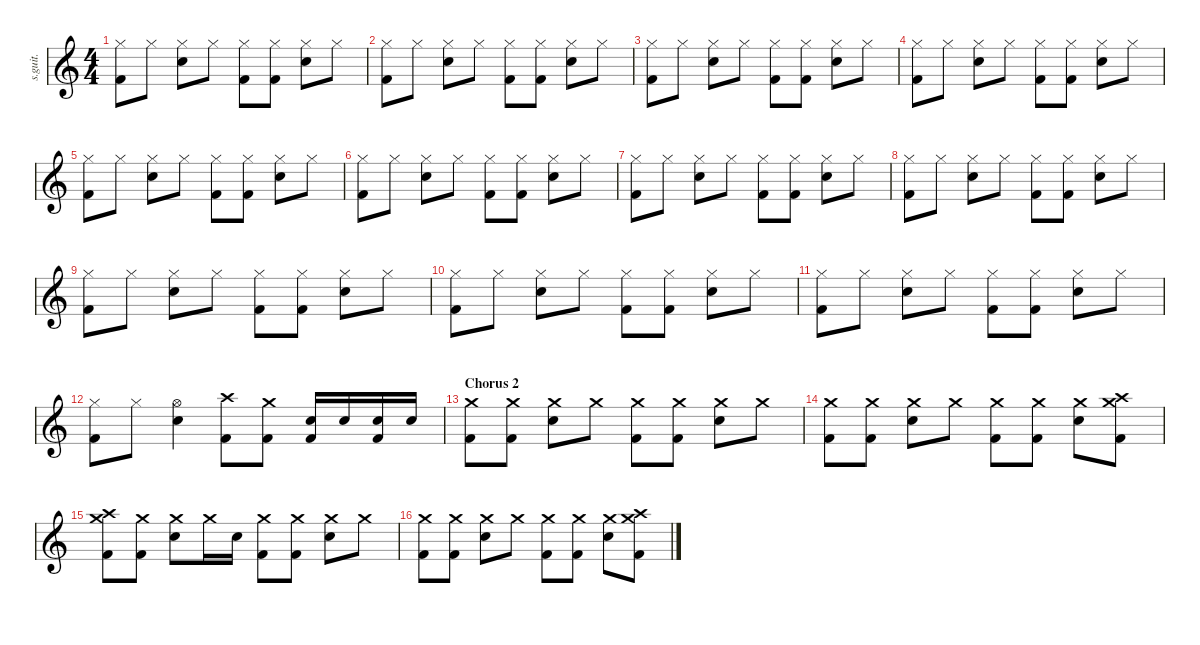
\defaultSystemsLayout 4
\hideDynamics
\bracketExtendMode nobrackets
\track ("Tre Cool" "s.guit.") {instrument percussion}
\staff {score}
\articulation defaults
\ts (4 4)
\tempo (84 hide)
\clef g2
\ks c
("Hi-Hat (closed)" "Kick (hit) 2").8{lyrics (0 "") lyrics (1 "") lyrics (2 "") lyrics (3 "") lyrics (4 "") dy f} "Hi-Hat (closed)".8{lyrics (0 "") lyrics (1 "") lyrics (2 "") lyrics (3 "") lyrics (4 "")} ("Hi-Hat (closed)" "Snare (hit) 2").8{lyrics (0 "") lyrics (1 "") lyrics (2 "") lyrics (3 "") lyrics (4 "")} "Hi-Hat (closed)".8{lyrics (0 "") lyrics (1 "") lyrics (2 "") lyrics (3 "") lyrics (4 "")} ("Hi-Hat (closed)" "Kick (hit) 2").8{lyrics (0 "") lyrics (1 "") lyrics (2 "") lyrics (3 "") lyrics (4 "")} ("Hi-Hat (closed)" "Kick (hit) 2").8{lyrics (0 "") lyrics (1 "") lyrics (2 "") lyrics (3 "") lyrics (4 "")} ("Hi-Hat (closed)" "Snare (hit) 2").8{lyrics (0 "") lyrics (1 "") lyrics (2 "") lyrics (3 "") lyrics (4 "")} "Hi-Hat (closed)".8{lyrics (0 "") lyrics (1 "") lyrics (2 "") lyrics (3 "") lyrics (4 "")} |
("Hi-Hat (closed)" "Kick (hit) 2").8{lyrics (0 "") lyrics (1 "") lyrics (2 "") lyrics (3 "") lyrics (4 "")} "Hi-Hat (closed)".8{lyrics (0 "") lyrics (1 "") lyrics (2 "") lyrics (3 "") lyrics (4 "")} ("Hi-Hat (closed)" "Snare (hit) 2").8{lyrics (0 "") lyrics (1 "") lyrics (2 "") lyrics (3 "") lyrics (4 "")} "Hi-Hat (closed)".8{lyrics (0 "") lyrics (1 "") lyrics (2 "") lyrics (3 "") lyrics (4 "")} ("Hi-Hat (closed)" "Kick (hit) 2").8{lyrics (0 "") lyrics (1 "") lyrics (2 "") lyrics (3 "") lyrics (4 "")} ("Hi-Hat (closed)" "Kick (hit) 2").8{lyrics (0 "") lyrics (1 "") lyrics (2 "") lyrics (3 "") lyrics (4 "")} ("Hi-Hat (closed)" "Snare (hit) 2").8{lyrics (0 "") lyrics (1 "") lyrics (2 "") lyrics (3 "") lyrics (4 "")} "Hi-Hat (closed)".8{lyrics (0 "") lyrics (1 "") lyrics (2 "") lyrics (3 "") lyrics (4 "")} |
("Hi-Hat (closed)" "Kick (hit) 2").8{lyrics (0 "") lyrics (1 "") lyrics (2 "") lyrics (3 "") lyrics (4 "")} "Hi-Hat (closed)".8{lyrics (0 "") lyrics (1 "") lyrics (2 "") lyrics (3 "") lyrics (4 "")} ("Hi-Hat (closed)" "Snare (hit) 2").8{lyrics (0 "") lyrics (1 "") lyrics (2 "") lyrics (3 "") lyrics (4 "")} "Hi-Hat (closed)".8{lyrics (0 "") lyrics (1 "") lyrics (2 "") lyrics (3 "") lyrics (4 "")} ("Hi-Hat (closed)" "Kick (hit) 2").8{lyrics (0 "") lyrics (1 "") lyrics (2 "") lyrics (3 "") lyrics (4 "")} ("Hi-Hat (closed)" "Kick (hit) 2").8{lyrics (0 "") lyrics (1 "") lyrics (2 "") lyrics (3 "") lyrics (4 "")} ("Hi-Hat (closed)" "Snare (hit) 2").8{lyrics (0 "") lyrics (1 "") lyrics (2 "") lyrics (3 "") lyrics (4 "")} "Hi-Hat (closed)".8{lyrics (0 "") lyrics (1 "") lyrics (2 "") lyrics (3 "") lyrics (4 "")} |
("Hi-Hat (closed)" "Kick (hit) 2").8{lyrics (0 "") lyrics (1 "") lyrics (2 "") lyrics (3 "") lyrics (4 "")} "Hi-Hat (closed)".8{lyrics (0 "") lyrics (1 "") lyrics (2 "") lyrics (3 "") lyrics (4 "")} ("Hi-Hat (closed)" "Snare (hit) 2").8{lyrics (0 "") lyrics (1 "") lyrics (2 "") lyrics (3 "") lyrics (4 "")} "Hi-Hat (closed)".8{lyrics (0 "") lyrics (1 "") lyrics (2 "") lyrics (3 "") lyrics (4 "")} ("Hi-Hat (closed)" "Kick (hit) 2").8{lyrics (0 "") lyrics (1 "") lyrics (2 "") lyrics (3 "") lyrics (4 "")} ("Hi-Hat (closed)" "Kick (hit) 2").8{lyrics (0 "") lyrics (1 "") lyrics (2 "") lyrics (3 "") lyrics (4 "")} ("Hi-Hat (closed)" "Snare (hit) 2").8{lyrics (0 "") lyrics (1 "") lyrics (2 "") lyrics (3 "") lyrics (4 "")} "Hi-Hat (closed)".8{lyrics (0 "") lyrics (1 "") lyrics (2 "") lyrics (3 "") lyrics (4 "")} |
("Hi-Hat (closed)" "Kick (hit) 2").8{lyrics (0 "") lyrics (1 "") lyrics (2 "") lyrics (3 "") lyrics (4 "")} "Hi-Hat (closed)".8{lyrics (0 "") lyrics (1 "") lyrics (2 "") lyrics (3 "") lyrics (4 "")} ("Hi-Hat (closed)" "Snare (hit) 2").8{lyrics (0 "") lyrics (1 "") lyrics (2 "") lyrics (3 "") lyrics (4 "")} "Hi-Hat (closed)".8{lyrics (0 "") lyrics (1 "") lyrics (2 "") lyrics (3 "") lyrics (4 "")} ("Hi-Hat (closed)" "Kick (hit) 2").8{lyrics (0 "") lyrics (1 "") lyrics (2 "") lyrics (3 "") lyrics (4 "")} ("Hi-Hat (closed)" "Kick (hit) 2").8{lyrics (0 "") lyrics (1 "") lyrics (2 "") lyrics (3 "") lyrics (4 "")} ("Hi-Hat (closed)" "Snare (hit) 2").8{lyrics (0 "") lyrics (1 "") lyrics (2 "") lyrics (3 "") lyrics (4 "")} "Hi-Hat (closed)".8{lyrics (0 "") lyrics (1 "") lyrics (2 "") lyrics (3 "") lyrics (4 "")} |
("Hi-Hat (closed)" "Kick (hit) 2").8{lyrics (0 "") lyrics (1 "") lyrics (2 "") lyrics (3 "") lyrics (4 "")} "Hi-Hat (closed)".8{lyrics (0 "") lyrics (1 "") lyrics (2 "") lyrics (3 "") lyrics (4 "")} ("Hi-Hat (closed)" "Snare (hit) 2").8{lyrics (0 "") lyrics (1 "") lyrics (2 "") lyrics (3 "") lyrics (4 "")} "Hi-Hat (closed)".8{lyrics (0 "") lyrics (1 "") lyrics (2 "") lyrics (3 "") lyrics (4 "")} ("Hi-Hat (closed)" "Kick (hit) 2").8{lyrics (0 "") lyrics (1 "") lyrics (2 "") lyrics (3 "") lyrics (4 "")} ("Hi-Hat (closed)" "Kick (hit) 2").8{lyrics (0 "") lyrics (1 "") lyrics (2 "") lyrics (3 "") lyrics (4 "")} ("Hi-Hat (closed)" "Snare (hit) 2").8{lyrics (0 "") lyrics (1 "") lyrics (2 "") lyrics (3 "") lyrics (4 "")} "Hi-Hat (closed)".8{lyrics (0 "") lyrics (1 "") lyrics (2 "") lyrics (3 "") lyrics (4 "")} |
("Hi-Hat (closed)" "Kick (hit) 2").8{lyrics (0 "") lyrics (1 "") lyrics (2 "") lyrics (3 "") lyrics (4 "")} "Hi-Hat (closed)".8{lyrics (0 "") lyrics (1 "") lyrics (2 "") lyrics (3 "") lyrics (4 "")} ("Hi-Hat (closed)" "Snare (hit) 2").8{lyrics (0 "") lyrics (1 "") lyrics (2 "") lyrics (3 "") lyrics (4 "")} "Hi-Hat (closed)".8{lyrics (0 "") lyrics (1 "") lyrics (2 "") lyrics (3 "") lyrics (4 "")} ("Hi-Hat (closed)" "Kick (hit) 2").8{lyrics (0 "") lyrics (1 "") lyrics (2 "") lyrics (3 "") lyrics (4 "")} ("Hi-Hat (closed)" "Kick (hit) 2").8{lyrics (0 "") lyrics (1 "") lyrics (2 "") lyrics (3 "") lyrics (4 "")} ("Hi-Hat (closed)" "Snare (hit) 2").8{lyrics (0 "") lyrics (1 "") lyrics (2 "") lyrics (3 "") lyrics (4 "")} "Hi-Hat (closed)".8{lyrics (0 "") lyrics (1 "") lyrics (2 "") lyrics (3 "") lyrics (4 "")} |
("Hi-Hat (closed)" "Kick (hit) 2").8{lyrics (0 "") lyrics (1 "") lyrics (2 "") lyrics (3 "") lyrics (4 "")} "Hi-Hat (closed)".8{lyrics (0 "") lyrics (1 "") lyrics (2 "") lyrics (3 "") lyrics (4 "")} ("Hi-Hat (closed)" "Snare (hit) 2").8{lyrics (0 "") lyrics (1 "") lyrics (2 "") lyrics (3 "") lyrics (4 "")} "Hi-Hat (closed)".8{lyrics (0 "") lyrics (1 "") lyrics (2 "") lyrics (3 "") lyrics (4 "")} ("Hi-Hat (closed)" "Kick (hit) 2").8{lyrics (0 "") lyrics (1 "") lyrics (2 "") lyrics (3 "") lyrics (4 "")} ("Hi-Hat (closed)" "Kick (hit) 2").8{lyrics (0 "") lyrics (1 "") lyrics (2 "") lyrics (3 "") lyrics (4 "")} ("Hi-Hat (closed)" "Snare (hit) 2").8{lyrics (0 "") lyrics (1 "") lyrics (2 "") lyrics (3 "") lyrics (4 "")} "Hi-Hat (closed)".8{lyrics (0 "") lyrics (1 "") lyrics (2 "") lyrics (3 "") lyrics (4 "")} |
("Hi-Hat (closed)" "Kick (hit) 2").8{lyrics (0 "") lyrics (1 "") lyrics (2 "") lyrics (3 "") lyrics (4 "")} "Hi-Hat (closed)".8{lyrics (0 "") lyrics (1 "") lyrics (2 "") lyrics (3 "") lyrics (4 "")} ("Hi-Hat (closed)" "Snare (hit) 2").8{lyrics (0 "") lyrics (1 "") lyrics (2 "") lyrics (3 "") lyrics (4 "")} "Hi-Hat (closed)".8{lyrics (0 "") lyrics (1 "") lyrics (2 "") lyrics (3 "") lyrics (4 "")} ("Hi-Hat (closed)" "Kick (hit) 2").8{lyrics (0 "") lyrics (1 "") lyrics (2 "") lyrics (3 "") lyrics (4 "")} ("Hi-Hat (closed)" "Kick (hit) 2").8{lyrics (0 "") lyrics (1 "") lyrics (2 "") lyrics (3 "") lyrics (4 "")} ("Hi-Hat (closed)" "Snare (hit) 2").8{lyrics (0 "") lyrics (1 "") lyrics (2 "") lyrics (3 "") lyrics (4 "")} "Hi-Hat (closed)".8{lyrics (0 "") lyrics (1 "") lyrics (2 "") lyrics (3 "") lyrics (4 "")} |
("Hi-Hat (closed)" "Kick (hit) 2").8{lyrics (0 "") lyrics (1 "") lyrics (2 "") lyrics (3 "") lyrics (4 "")} "Hi-Hat (closed)".8{lyrics (0 "") lyrics (1 "") lyrics (2 "") lyrics (3 "") lyrics (4 "")} ("Hi-Hat (closed)" "Snare (hit) 2").8{lyrics (0 "") lyrics (1 "") lyrics (2 "") lyrics (3 "") lyrics (4 "")} "Hi-Hat (closed)".8{lyrics (0 "") lyrics (1 "") lyrics (2 "") lyrics (3 "") lyrics (4 "")} ("Hi-Hat (closed)" "Kick (hit) 2").8{lyrics (0 "") lyrics (1 "") lyrics (2 "") lyrics (3 "") lyrics (4 "")} ("Hi-Hat (closed)" "Kick (hit) 2").8{lyrics (0 "") lyrics (1 "") lyrics (2 "") lyrics (3 "") lyrics (4 "")} ("Hi-Hat (closed)" "Snare (hit) 2").8{lyrics (0 "") lyrics (1 "") lyrics (2 "") lyrics (3 "") lyrics (4 "")} "Hi-Hat (closed)".8{lyrics (0 "") lyrics (1 "") lyrics (2 "") lyrics (3 "") lyrics (4 "")} |
("Hi-Hat (closed)" "Kick (hit) 2").8{lyrics (0 "") lyrics (1 "") lyrics (2 "") lyrics (3 "") lyrics (4 "")} "Hi-Hat (closed)".8{lyrics (0 "") lyrics (1 "") lyrics (2 "") lyrics (3 "") lyrics (4 "")} ("Hi-Hat (closed)" "Snare (hit) 2").8{lyrics (0 "") lyrics (1 "") lyrics (2 "") lyrics (3 "") lyrics (4 "")} "Hi-Hat (closed)".8{lyrics (0 "") lyrics (1 "") lyrics (2 "") lyrics (3 "") lyrics (4 "")} ("Hi-Hat (closed)" "Kick (hit) 2").8{lyrics (0 "") lyrics (1 "") lyrics (2 "") lyrics (3 "") lyrics (4 "")} ("Hi-Hat (closed)" "Kick (hit) 2").8{lyrics (0 "") lyrics (1 "") lyrics (2 "") lyrics (3 "") lyrics (4 "")} ("Hi-Hat (closed)" "Snare (hit) 2").8{lyrics (0 "") lyrics (1 "") lyrics (2 "") lyrics (3 "") lyrics (4 "")} "Hi-Hat (closed)".8{lyrics (0 "") lyrics (1 "") lyrics (2 "") lyrics (3 "") lyrics (4 "")} |
("Hi-Hat (closed)" "Kick (hit) 2").8{lyrics (0 "") lyrics (1 "") lyrics (2 "") lyrics (3 "") lyrics (4 "")} "Hi-Hat (closed)".8{lyrics (0 "") lyrics (1 "") lyrics (2 "") lyrics (3 "") lyrics (4 "")} ("Hi-Hat (open)" "Snare (hit) 2").4{lyrics (0 "") lyrics (1 "") lyrics (2 "") lyrics (3 "") lyrics (4 "")} ("Crash high (hit)" "Kick (hit) 2").8{lyrics (0 "") lyrics (1 "") lyrics (2 "") lyrics (3 "") lyrics (4 "")} ("Crash medium (hit)" "Kick (hit) 2").8{lyrics (0 "") lyrics (1 "") lyrics (2 "") lyrics (3 "") lyrics (4 "")} ("Snare (hit) 2" "Kick (hit) 2").16{lyrics (0 "") lyrics (1 "") lyrics (2 "") lyrics (3 "") lyrics (4 "")} "Snare (hit) 2".16{lyrics (0 "") lyrics (1 "") lyrics (2 "") lyrics (3 "") lyrics (4 "")} ("Snare (hit) 2" "Kick (hit) 2").16{lyrics (0 "") lyrics (1 "") lyrics (2 "") lyrics (3 "") lyrics (4 "")} "Snare (hit) 2".16{lyrics (0 "") lyrics (1 "") lyrics (2 "") lyrics (3 "") lyrics (4 "")} |
\section ("" "Chorus 2")
("Crash medium (hit)" "Kick (hit) 2").8{lyrics (0 "") lyrics (1 "") lyrics (2 "") lyrics (3 "") lyrics (4 "")} ("Crash medium (hit)" "Kick (hit) 2").8{lyrics (0 "") lyrics (1 "") lyrics (2 "") lyrics (3 "") lyrics (4 "")} ("Crash medium (hit)" "Snare (hit) 2").8{lyrics (0 "") lyrics (1 "") lyrics (2 "") lyrics (3 "") lyrics (4 "")} "Crash medium (hit)".8{lyrics (0 "") lyrics (1 "") lyrics (2 "") lyrics (3 "") lyrics (4 "")} ("Crash medium (hit)" "Kick (hit) 2").8{lyrics (0 "") lyrics (1 "") lyrics (2 "") lyrics (3 "") lyrics (4 "")} ("Crash medium (hit)" "Kick (hit) 2").8{lyrics (0 "") lyrics (1 "") lyrics (2 "") lyrics (3 "") lyrics (4 "")} ("Crash medium (hit)" "Snare (hit) 2").8{lyrics (0 "") lyrics (1 "") lyrics (2 "") lyrics (3 "") lyrics (4 "")} "Crash medium (hit)".8{lyrics (0 "") lyrics (1 "") lyrics (2 "") lyrics (3 "") lyrics (4 "")} |
("Crash medium (hit)" "Kick (hit) 2").8{lyrics (0 "") lyrics (1 "") lyrics (2 "") lyrics (3 "") lyrics (4 "")} ("Crash medium (hit)" "Kick (hit) 2").8{lyrics (0 "") lyrics (1 "") lyrics (2 "") lyrics (3 "") lyrics (4 "")} ("Crash medium (hit)" "Snare (hit) 2").8{lyrics (0 "") lyrics (1 "") lyrics (2 "") lyrics (3 "") lyrics (4 "")} "Crash medium (hit)".8{lyrics (0 "") lyrics (1 "") lyrics (2 "") lyrics (3 "") lyrics (4 "")} ("Crash medium (hit)" "Kick (hit) 2").8{lyrics (0 "") lyrics (1 "") lyrics (2 "") lyrics (3 "") lyrics (4 "")} ("Crash medium (hit)" "Kick (hit) 2").8{lyrics (0 "") lyrics (1 "") lyrics (2 "") lyrics (3 "") lyrics (4 "")} ("Crash medium (hit)" "Snare (hit) 2").8{lyrics (0 "") lyrics (1 "") lyrics (2 "") lyrics (3 "") lyrics (4 "")} ("Crash medium (hit)" "Crash high (hit)" "Kick (hit) 2").8{lyrics (0 "") lyrics (1 "") lyrics (2 "") lyrics (3 "") lyrics (4 "")} |
("Crash medium (hit)" "Crash high (hit)" "Kick (hit) 2").8{lyrics (0 "") lyrics (1 "") lyrics (2 "") lyrics (3 "") lyrics (4 "")} ("Crash medium (hit)" "Kick (hit) 2").8{lyrics (0 "") lyrics (1 "") lyrics (2 "") lyrics (3 "") lyrics (4 "")} ("Crash medium (hit)" "Snare (hit) 2").8{lyrics (0 "") lyrics (1 "") lyrics (2 "") lyrics (3 "") lyrics (4 "")} "Crash medium (hit)".16{lyrics (0 "") lyrics (1 "") lyrics (2 "") lyrics (3 "") lyrics (4 "")} "Snare (hit) 2".16{lyrics (0 "") lyrics (1 "") lyrics (2 "") lyrics (3 "") lyrics (4 "")} ("Crash medium (hit)" "Kick (hit) 2").8{lyrics (0 "") lyrics (1 "") lyrics (2 "") lyrics (3 "") lyrics (4 "")} ("Crash medium (hit)" "Kick (hit) 2").8{lyrics (0 "") lyrics (1 "") lyrics (2 "") lyrics (3 "") lyrics (4 "")} ("Crash medium (hit)" "Snare (hit) 2").8{lyrics (0 "") lyrics (1 "") lyrics (2 "") lyrics (3 "") lyrics (4 "")} "Crash medium (hit)".8{lyrics (0 "") lyrics (1 "") lyrics (2 "") lyrics (3 "") lyrics (4 "")} |
("Crash medium (hit)" "Kick (hit) 2").8{lyrics (0 "") lyrics (1 "") lyrics (2 "") lyrics (3 "") lyrics (4 "")} ("Crash medium (hit)" "Kick (hit) 2").8{lyrics (0 "") lyrics (1 "") lyrics (2 "") lyrics (3 "") lyrics (4 "")} ("Crash medium (hit)" "Snare (hit) 2").8{lyrics (0 "") lyrics (1 "") lyrics (2 "") lyrics (3 "") lyrics (4 "")} "Crash medium (hit)".8{lyrics (0 "") lyrics (1 "") lyrics (2 "") lyrics (3 "") lyrics (4 "")} ("Crash medium (hit)" "Kick (hit) 2").8{lyrics (0 "") lyrics (1 "") lyrics (2 "") lyrics (3 "") lyrics (4 "")} ("Crash medium (hit)" "Kick (hit) 2").8{lyrics (0 "") lyrics (1 "") lyrics (2 "") lyrics (3 "") lyrics (4 "")} ("Crash medium (hit)" "Snare (hit) 2").8{lyrics (0 "") lyrics (1 "") lyrics (2 "") lyrics (3 "") lyrics (4 "")} ("Crash medium (hit)" "Crash high (hit)" "Kick (hit) 2").8{lyrics (0 "") lyrics (1 "") lyrics (2 "") lyrics (3 "") lyrics (4 "")}
